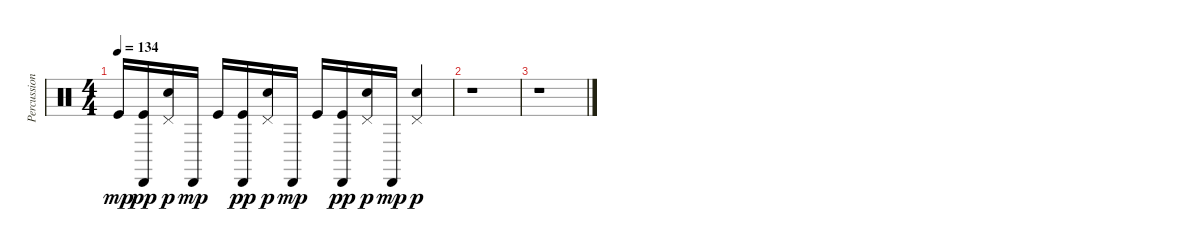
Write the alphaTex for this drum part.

\track ("Percussions" "Percussion") {instrument percussion}
\staff {score}
\articulation defaults
\ts (4 4)
\tempo 134
\clef neutral
\ks c "Kick (hit)".16{dy mp}
("Cabasa (hit)" "Kick (hit)").16{dy pp} ("Electric Snare (hit)" "Pedal Hi-Hat (hit)").16{dy p} "Cabasa (hit)".16{dy mp} "Kick (hit)".16 ("Cabasa (hit)" "Kick (hit)").16{dy pp} ("Electric Snare (hit)" "Pedal Hi-Hat (hit)").16{dy p} "Cabasa (hit)".16{dy mp} "Kick (hit)".16 ("Cabasa (hit)" "Kick (hit)").16{dy pp} ("Electric Snare (hit)" "Pedal Hi-Hat (hit)").16{dy p} "Cabasa (hit)".16{dy mp} ("Electric Snare (hit)" "Pedal Hi-Hat (hit)").4{dy p} |
r.1 |
r.1
